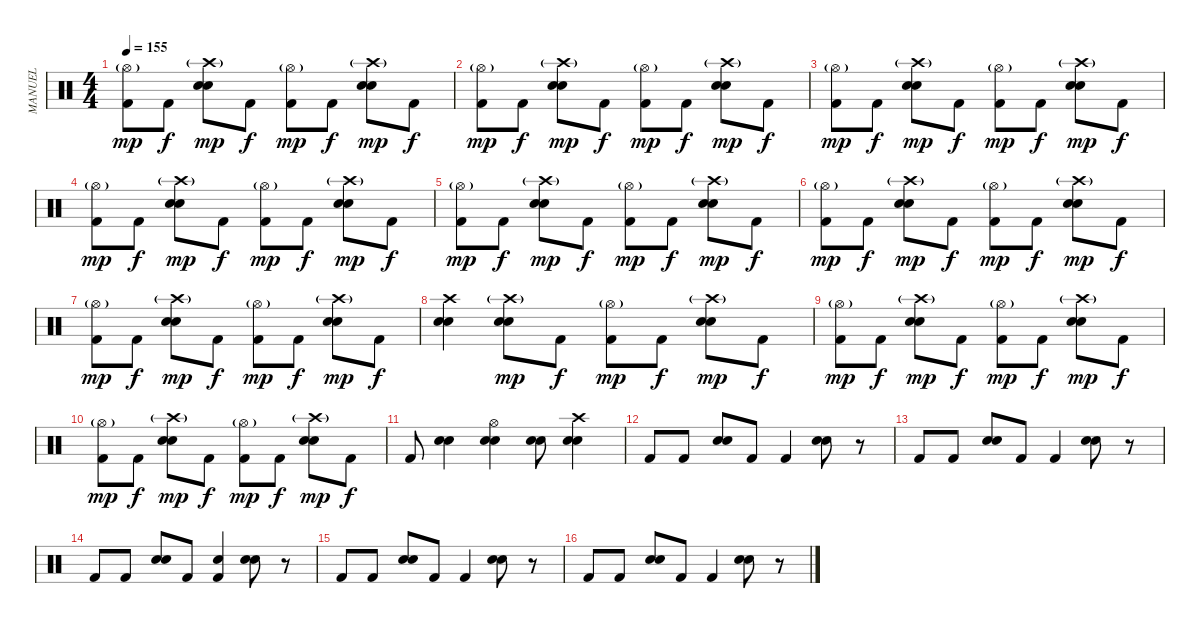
\track ("MANUEL" "MANUEL") {instrument percussion}
\staff {score}
\articulation defaults
\ts (4 4)
\tempo 155
\clef neutral
\ks c
("Hi-Hat (open)"{g} "Kick (hit) 2").8{dy mp} "Kick (hit) 2".8{dy f} ("Crash high (hit)"{g} "Snare (hit) 2" "Electric Snare (hit)").8{dy mp} "Kick (hit) 2".8{dy f} ("Hi-Hat (open)"{g} "Kick (hit) 2").8{dy mp} "Kick (hit) 2".8{dy f} ("Crash high (hit)"{g} "Snare (hit) 2" "Electric Snare (hit)").8{dy mp} "Kick (hit) 2".8{dy f} |
("Hi-Hat (open)"{g} "Kick (hit) 2").8{dy mp} "Kick (hit) 2".8{dy f} ("Crash high (hit)"{g} "Snare (hit) 2" "Electric Snare (hit)").8{dy mp} "Kick (hit) 2".8{dy f} ("Hi-Hat (open)"{g} "Kick (hit) 2").8{dy mp} "Kick (hit) 2".8{dy f} ("Crash high (hit)"{g} "Snare (hit) 2" "Electric Snare (hit)").8{dy mp} "Kick (hit) 2".8{dy f} |
("Hi-Hat (open)"{g} "Kick (hit) 2").8{dy mp} "Kick (hit) 2".8{dy f} ("Crash high (hit)"{g} "Snare (hit) 2" "Electric Snare (hit)").8{dy mp} "Kick (hit) 2".8{dy f} ("Hi-Hat (open)"{g} "Kick (hit) 2").8{dy mp} "Kick (hit) 2".8{dy f} ("Crash high (hit)"{g} "Snare (hit) 2" "Electric Snare (hit)").8{dy mp} "Kick (hit) 2".8{dy f} |
("Hi-Hat (open)"{g} "Kick (hit) 2").8{dy mp} "Kick (hit) 2".8{dy f} ("Crash high (hit)"{g} "Snare (hit) 2" "Electric Snare (hit)").8{dy mp} "Kick (hit) 2".8{dy f} ("Hi-Hat (open)"{g} "Kick (hit) 2").8{dy mp} "Kick (hit) 2".8{dy f} ("Crash high (hit)"{g} "Snare (hit) 2" "Electric Snare (hit)").8{dy mp} "Kick (hit) 2".8{dy f} |
("Hi-Hat (open)"{g} "Kick (hit) 2").8{dy mp} "Kick (hit) 2".8{dy f} ("Crash high (hit)"{g} "Snare (hit) 2" "Electric Snare (hit)").8{dy mp} "Kick (hit) 2".8{dy f} ("Hi-Hat (open)"{g} "Kick (hit) 2").8{dy mp} "Kick (hit) 2".8{dy f} ("Crash high (hit)"{g} "Snare (hit) 2" "Electric Snare (hit)").8{dy mp} "Kick (hit) 2".8{dy f} |
("Hi-Hat (open)"{g} "Kick (hit) 2").8{dy mp} "Kick (hit) 2".8{dy f} ("Crash high (hit)"{g} "Snare (hit) 2" "Electric Snare (hit)").8{dy mp} "Kick (hit) 2".8{dy f} ("Hi-Hat (open)"{g} "Kick (hit) 2").8{dy mp} "Kick (hit) 2".8{dy f} ("Crash high (hit)"{g} "Snare (hit) 2" "Electric Snare (hit)").8{dy mp} "Kick (hit) 2".8{dy f} |
("Hi-Hat (open)"{g} "Kick (hit) 2").8{dy mp} "Kick (hit) 2".8{dy f} ("Crash high (hit)"{g} "Snare (hit) 2" "Electric Snare (hit)").8{dy mp} "Kick (hit) 2".8{dy f} ("Hi-Hat (open)"{g} "Kick (hit) 2").8{dy mp} "Kick (hit) 2".8{dy f} ("Crash high (hit)"{g} "Snare (hit) 2" "Electric Snare (hit)").8{dy mp} "Kick (hit) 2".8{dy f} |
("Crash high (hit)" "Snare (hit) 2" "Electric Snare (hit)").4 ("Crash high (hit)"{g} "Snare (hit) 2" "Electric Snare (hit)").8{dy mp} "Kick (hit) 2".8{dy f} ("Hi-Hat (open)"{g} "Kick (hit) 2").8{dy mp} "Kick (hit) 2".8{dy f} ("Crash high (hit)"{g} "Snare (hit) 2" "Electric Snare (hit)").8{dy mp} "Kick (hit) 2".8{dy f} |
("Hi-Hat (open)"{g} "Kick (hit) 2").8{dy mp} "Kick (hit) 2".8{dy f} ("Crash high (hit)"{g} "Snare (hit) 2" "Electric Snare (hit)").8{dy mp} "Kick (hit) 2".8{dy f} ("Hi-Hat (open)"{g} "Kick (hit) 2").8{dy mp} "Kick (hit) 2".8{dy f} ("Crash high (hit)"{g} "Snare (hit) 2" "Electric Snare (hit)").8{dy mp} "Kick (hit) 2".8{dy f} |
("Hi-Hat (open)"{g} "Kick (hit) 2").8{dy mp} "Kick (hit) 2".8{dy f} ("Crash high (hit)"{g} "Snare (hit) 2" "Electric Snare (hit)").8{dy mp} "Kick (hit) 2".8{dy f} ("Hi-Hat (open)"{g} "Kick (hit) 2").8{dy mp} "Kick (hit) 2".8{dy f} ("Crash high (hit)"{g} "Snare (hit) 2" "Electric Snare (hit)").8{dy mp} "Kick (hit) 2".8{dy f} |
"Kick (hit) 2".8 ("Snare (hit) 2" "Electric Snare (hit)").4 ("Hi-Hat (open)" "Snare (hit) 2" "Electric Snare (hit)").4 ("Snare (hit) 2" "Electric Snare (hit)").8 ("Crash high (hit)" "Snare (hit) 2" "Electric Snare (hit)").4 |
"Kick (hit) 2".8 "Kick (hit) 2".8 ("Electric Snare (hit)" "Snare (hit) 2").8 "Kick (hit) 2".8 "Kick (hit) 2".4 ("Electric Snare (hit)" "Snare (hit) 2").8 r.8 |
"Kick (hit) 2".8 "Kick (hit) 2".8 ("Electric Snare (hit)" "Snare (hit) 2").8 "Kick (hit) 2".8 "Kick (hit) 2".4 ("Electric Snare (hit)" "Snare (hit) 2").8 r.8 |
"Kick (hit) 2".8 "Kick (hit) 2".8 ("Electric Snare (hit)" "Snare (hit) 2").8 "Kick (hit) 2".8 ("Kick (hit) 2" "Snare (hit) 2").4 ("Electric Snare (hit)" "Snare (hit) 2").8 r.8 |
"Kick (hit) 2".8 "Kick (hit) 2".8 ("Electric Snare (hit)" "Snare (hit) 2").8 "Kick (hit) 2".8 "Kick (hit) 2".4 ("Electric Snare (hit)" "Snare (hit) 2").8 r.8 |
"Kick (hit) 2".8 "Kick (hit) 2".8 ("Electric Snare (hit)" "Snare (hit) 2").8 "Kick (hit) 2".8 "Kick (hit) 2".4 ("Electric Snare (hit)" "Snare (hit) 2").8 r.8
